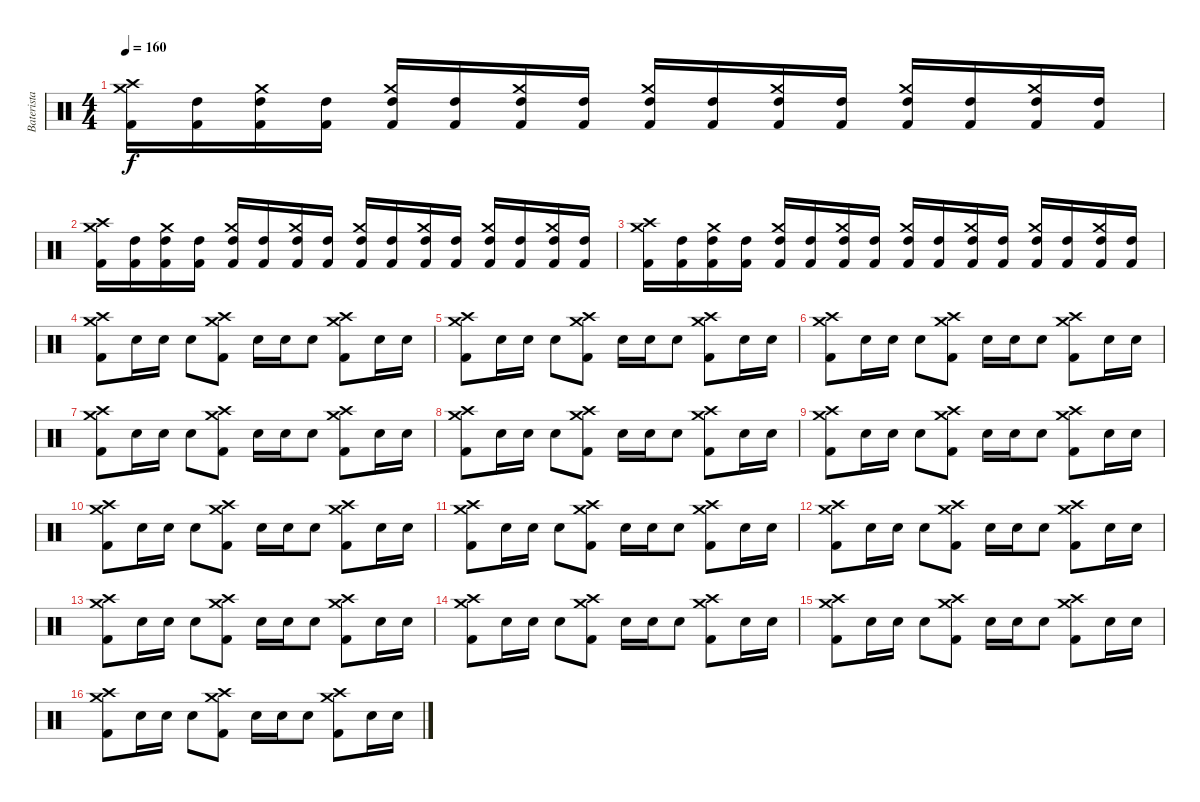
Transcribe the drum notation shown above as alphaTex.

\track ("Baterista" "Baterista") {instrument percussion}
\staff {score}
\articulation defaults
\ts (4 4)
\tempo 160
\clef neutral
\ks c
("Kick (hit) 2" "Crash high (hit)" "Crash medium (hit)").16{dy f} ("Kick (hit) 2" "High Tom (hit)").16 ("Kick (hit) 2" "High Tom (hit)" "Crash medium (hit)").16 ("Kick (hit) 2" "High Tom (hit)").16 ("Kick (hit) 2" "High Tom (hit)" "Crash medium (hit)").16 ("Kick (hit) 2" "High Tom (hit)").16 ("Kick (hit) 2" "High Tom (hit)" "Crash medium (hit)").16 ("Kick (hit) 2" "High Tom (hit)").16 ("Kick (hit) 2" "High Tom (hit)" "Crash medium (hit)").16 ("Kick (hit) 2" "High Tom (hit)").16 ("Kick (hit) 2" "High Tom (hit)" "Crash medium (hit)").16 ("Kick (hit) 2" "High Tom (hit)").16 ("Kick (hit) 2" "High Tom (hit)" "Crash medium (hit)").16 ("Kick (hit) 2" "High Tom (hit)").16 ("Kick (hit) 2" "High Tom (hit)" "Crash medium (hit)").16 ("Kick (hit) 2" "High Tom (hit)").16 |
("Kick (hit) 2" "Crash high (hit)" "Crash medium (hit)").16 ("Kick (hit) 2" "High Tom (hit)").16 ("Kick (hit) 2" "High Tom (hit)" "Crash medium (hit)").16 ("Kick (hit) 2" "High Tom (hit)").16 ("Kick (hit) 2" "High Tom (hit)" "Crash medium (hit)").16 ("Kick (hit) 2" "High Tom (hit)").16 ("Kick (hit) 2" "High Tom (hit)" "Crash medium (hit)").16 ("Kick (hit) 2" "High Tom (hit)").16 ("Kick (hit) 2" "High Tom (hit)" "Crash medium (hit)").16 ("Kick (hit) 2" "High Tom (hit)").16 ("Kick (hit) 2" "High Tom (hit)" "Crash medium (hit)").16 ("Kick (hit) 2" "High Tom (hit)").16 ("Kick (hit) 2" "High Tom (hit)" "Crash medium (hit)").16 ("Kick (hit) 2" "High Tom (hit)").16 ("Kick (hit) 2" "High Tom (hit)" "Crash medium (hit)").16 ("Kick (hit) 2" "High Tom (hit)").16 |
("Kick (hit) 2" "Crash high (hit)" "Crash medium (hit)").16 ("Kick (hit) 2" "High Tom (hit)").16 ("Kick (hit) 2" "High Tom (hit)" "Crash medium (hit)").16 ("Kick (hit) 2" "High Tom (hit)").16 ("Kick (hit) 2" "High Tom (hit)" "Crash medium (hit)").16 ("Kick (hit) 2" "High Tom (hit)").16 ("Kick (hit) 2" "High Tom (hit)" "Crash medium (hit)").16 ("Kick (hit) 2" "High Tom (hit)").16 ("Kick (hit) 2" "High Tom (hit)" "Crash medium (hit)").16 ("Kick (hit) 2" "High Tom (hit)").16 ("Kick (hit) 2" "High Tom (hit)" "Crash medium (hit)").16 ("Kick (hit) 2" "High Tom (hit)").16 ("Kick (hit) 2" "High Tom (hit)" "Crash medium (hit)").16 ("Kick (hit) 2" "High Tom (hit)").16 ("Kick (hit) 2" "High Tom (hit)" "Crash medium (hit)").16 ("Kick (hit) 2" "High Tom (hit)").16 |
("Kick (hit) 2" "Crash high (hit)" "Crash medium (hit)").8 "Electric Snare (hit)".16 "Electric Snare (hit)".16 "Electric Snare (hit)".8 ("Kick (hit) 2" "Crash high (hit)" "Crash medium (hit)").8 "Electric Snare (hit)".16 "Electric Snare (hit)".16 "Electric Snare (hit)".8 ("Kick (hit) 2" "Crash high (hit)" "Crash medium (hit)").8 "Electric Snare (hit)".16 "Electric Snare (hit)".16 |
("Kick (hit) 2" "Crash high (hit)" "Crash medium (hit)").8 "Electric Snare (hit)".16 "Electric Snare (hit)".16 "Electric Snare (hit)".8 ("Kick (hit) 2" "Crash high (hit)" "Crash medium (hit)").8 "Electric Snare (hit)".16 "Electric Snare (hit)".16 "Electric Snare (hit)".8 ("Kick (hit) 2" "Crash high (hit)" "Crash medium (hit)").8 "Electric Snare (hit)".16 "Electric Snare (hit)".16 |
("Kick (hit) 2" "Crash high (hit)" "Crash medium (hit)").8 "Electric Snare (hit)".16 "Electric Snare (hit)".16 "Electric Snare (hit)".8 ("Kick (hit) 2" "Crash high (hit)" "Crash medium (hit)").8 "Electric Snare (hit)".16 "Electric Snare (hit)".16 "Electric Snare (hit)".8 ("Kick (hit) 2" "Crash high (hit)" "Crash medium (hit)").8 "Electric Snare (hit)".16 "Electric Snare (hit)".16 |
("Kick (hit) 2" "Crash high (hit)" "Crash medium (hit)").8 "Electric Snare (hit)".16 "Electric Snare (hit)".16 "Electric Snare (hit)".8 ("Kick (hit) 2" "Crash high (hit)" "Crash medium (hit)").8 "Electric Snare (hit)".16 "Electric Snare (hit)".16 "Electric Snare (hit)".8 ("Kick (hit) 2" "Crash high (hit)" "Crash medium (hit)").8 "Electric Snare (hit)".16 "Electric Snare (hit)".16 |
("Kick (hit) 2" "Crash high (hit)" "Crash medium (hit)").8 "Electric Snare (hit)".16 "Electric Snare (hit)".16 "Electric Snare (hit)".8 ("Kick (hit) 2" "Crash high (hit)" "Crash medium (hit)").8 "Electric Snare (hit)".16 "Electric Snare (hit)".16 "Electric Snare (hit)".8 ("Kick (hit) 2" "Crash high (hit)" "Crash medium (hit)").8 "Electric Snare (hit)".16 "Electric Snare (hit)".16 |
("Kick (hit) 2" "Crash high (hit)" "Crash medium (hit)").8 "Electric Snare (hit)".16 "Electric Snare (hit)".16 "Electric Snare (hit)".8 ("Kick (hit) 2" "Crash high (hit)" "Crash medium (hit)").8 "Electric Snare (hit)".16 "Electric Snare (hit)".16 "Electric Snare (hit)".8 ("Kick (hit) 2" "Crash high (hit)" "Crash medium (hit)").8 "Electric Snare (hit)".16 "Electric Snare (hit)".16 |
("Kick (hit) 2" "Crash high (hit)" "Crash medium (hit)").8 "Electric Snare (hit)".16 "Electric Snare (hit)".16 "Electric Snare (hit)".8 ("Kick (hit) 2" "Crash high (hit)" "Crash medium (hit)").8 "Electric Snare (hit)".16 "Electric Snare (hit)".16 "Electric Snare (hit)".8 ("Kick (hit) 2" "Crash high (hit)" "Crash medium (hit)").8 "Electric Snare (hit)".16 "Electric Snare (hit)".16 |
("Kick (hit) 2" "Crash high (hit)" "Crash medium (hit)").8 "Electric Snare (hit)".16 "Electric Snare (hit)".16 "Electric Snare (hit)".8 ("Kick (hit) 2" "Crash high (hit)" "Crash medium (hit)").8 "Electric Snare (hit)".16 "Electric Snare (hit)".16 "Electric Snare (hit)".8 ("Kick (hit) 2" "Crash high (hit)" "Crash medium (hit)").8 "Electric Snare (hit)".16 "Electric Snare (hit)".16 |
("Kick (hit) 2" "Crash high (hit)" "Crash medium (hit)").8 "Electric Snare (hit)".16 "Electric Snare (hit)".16 "Electric Snare (hit)".8 ("Kick (hit) 2" "Crash high (hit)" "Crash medium (hit)").8 "Electric Snare (hit)".16 "Electric Snare (hit)".16 "Electric Snare (hit)".8 ("Kick (hit) 2" "Crash high (hit)" "Crash medium (hit)").8 "Electric Snare (hit)".16 "Electric Snare (hit)".16 |
("Kick (hit) 2" "Crash high (hit)" "Crash medium (hit)").8 "Electric Snare (hit)".16 "Electric Snare (hit)".16 "Electric Snare (hit)".8 ("Kick (hit) 2" "Crash high (hit)" "Crash medium (hit)").8 "Electric Snare (hit)".16 "Electric Snare (hit)".16 "Electric Snare (hit)".8 ("Kick (hit) 2" "Crash high (hit)" "Crash medium (hit)").8 "Electric Snare (hit)".16 "Electric Snare (hit)".16 |
("Kick (hit) 2" "Crash high (hit)" "Crash medium (hit)").8 "Electric Snare (hit)".16 "Electric Snare (hit)".16 "Electric Snare (hit)".8 ("Kick (hit) 2" "Crash high (hit)" "Crash medium (hit)").8 "Electric Snare (hit)".16 "Electric Snare (hit)".16 "Electric Snare (hit)".8 ("Kick (hit) 2" "Crash high (hit)" "Crash medium (hit)").8 "Electric Snare (hit)".16 "Electric Snare (hit)".16 |
("Kick (hit) 2" "Crash high (hit)" "Crash medium (hit)").8 "Electric Snare (hit)".16 "Electric Snare (hit)".16 "Electric Snare (hit)".8 ("Kick (hit) 2" "Crash high (hit)" "Crash medium (hit)").8 "Electric Snare (hit)".16 "Electric Snare (hit)".16 "Electric Snare (hit)".8 ("Kick (hit) 2" "Crash high (hit)" "Crash medium (hit)").8 "Electric Snare (hit)".16 "Electric Snare (hit)".16 |
("Kick (hit) 2" "Crash high (hit)" "Crash medium (hit)").8 "Electric Snare (hit)".16 "Electric Snare (hit)".16 "Electric Snare (hit)".8 ("Kick (hit) 2" "Crash high (hit)" "Crash medium (hit)").8 "Electric Snare (hit)".16 "Electric Snare (hit)".16 "Electric Snare (hit)".8 ("Kick (hit) 2" "Crash high (hit)" "Crash medium (hit)").8 "Electric Snare (hit)".16 "Electric Snare (hit)".16
